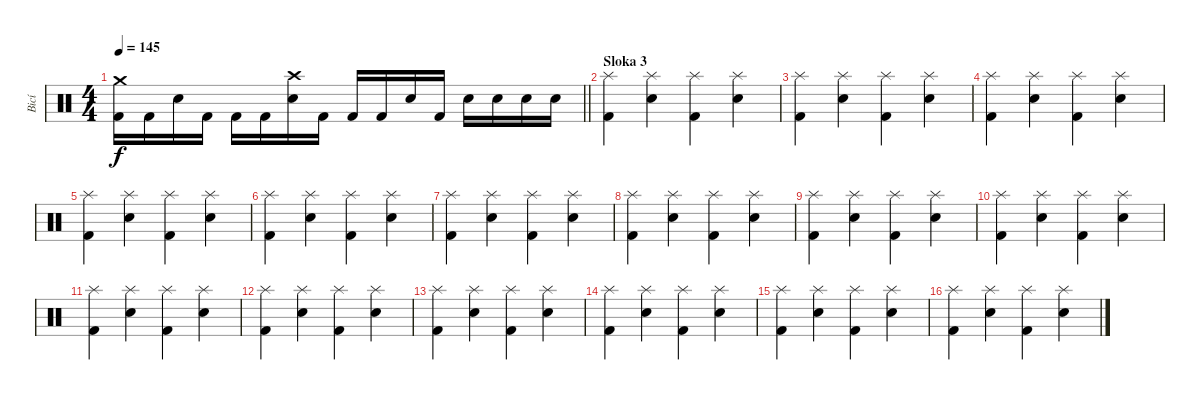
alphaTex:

\track ("Bicí" "Bicí") {instrument percussion}
\staff {score}
\articulation defaults
\ts (4 4)
\tempo 145
\clef neutral
\barLineRight lightlight
\ks c
("Kick (hit) 2" "Crash medium (hit)").16{dy f} "Kick (hit) 2".16 "Electric Snare (hit)".16 "Kick (hit) 2".16 "Kick (hit) 2".16 "Kick (hit) 2".16 ("Electric Snare (hit)" "Crash high (hit)").16 "Kick (hit) 2".16 "Kick (hit) 2".16 "Kick (hit) 2".16 "Electric Snare (hit)".16 "Kick (hit) 2".16 "Electric Snare (hit)".16 "Electric Snare (hit)".16 "Electric Snare (hit)".16 "Electric Snare (hit)".16 |
\section ("" "Sloka 3")
("Kick (hit) 2" "Splash (hit)").4 ("Electric Snare (hit)" "Splash (hit)").4 ("Kick (hit) 2" "Splash (hit)").4 ("Electric Snare (hit)" "Splash (hit)").4 |
("Kick (hit) 2" "Splash (hit)").4 ("Electric Snare (hit)" "Splash (hit)").4 ("Kick (hit) 2" "Splash (hit)").4 ("Electric Snare (hit)" "Splash (hit)").4 |
("Kick (hit) 2" "Splash (hit)").4 ("Electric Snare (hit)" "Splash (hit)").4 ("Kick (hit) 2" "Splash (hit)").4 ("Electric Snare (hit)" "Splash (hit)").4 |
("Kick (hit) 2" "Splash (hit)").4 ("Electric Snare (hit)" "Splash (hit)").4 ("Kick (hit) 2" "Splash (hit)").4 ("Electric Snare (hit)" "Splash (hit)").4 |
("Kick (hit) 2" "Splash (hit)").4 ("Electric Snare (hit)" "Splash (hit)").4 ("Kick (hit) 2" "Splash (hit)").4 ("Electric Snare (hit)" "Splash (hit)").4 |
("Kick (hit) 2" "Splash (hit)").4 ("Electric Snare (hit)" "Splash (hit)").4 ("Kick (hit) 2" "Splash (hit)").4 ("Electric Snare (hit)" "Splash (hit)").4 |
("Kick (hit) 2" "Splash (hit)").4 ("Electric Snare (hit)" "Splash (hit)").4 ("Kick (hit) 2" "Splash (hit)").4 ("Electric Snare (hit)" "Splash (hit)").4 |
("Kick (hit) 2" "Splash (hit)").4 ("Electric Snare (hit)" "Splash (hit)").4 ("Kick (hit) 2" "Splash (hit)").4 ("Electric Snare (hit)" "Splash (hit)").4 |
("Kick (hit) 2" "Splash (hit)").4 ("Electric Snare (hit)" "Splash (hit)").4 ("Kick (hit) 2" "Splash (hit)").4 ("Electric Snare (hit)" "Splash (hit)").4 |
("Kick (hit) 2" "Splash (hit)").4 ("Electric Snare (hit)" "Splash (hit)").4 ("Kick (hit) 2" "Splash (hit)").4 ("Electric Snare (hit)" "Splash (hit)").4 |
("Kick (hit) 2" "Splash (hit)").4 ("Electric Snare (hit)" "Splash (hit)").4 ("Kick (hit) 2" "Splash (hit)").4 ("Electric Snare (hit)" "Splash (hit)").4 |
("Kick (hit) 2" "Splash (hit)").4 ("Electric Snare (hit)" "Splash (hit)").4 ("Kick (hit) 2" "Splash (hit)").4 ("Electric Snare (hit)" "Splash (hit)").4 |
("Kick (hit) 2" "Splash (hit)").4 ("Electric Snare (hit)" "Splash (hit)").4 ("Kick (hit) 2" "Splash (hit)").4 ("Electric Snare (hit)" "Splash (hit)").4 |
("Kick (hit) 2" "Splash (hit)").4 ("Electric Snare (hit)" "Splash (hit)").4 ("Kick (hit) 2" "Splash (hit)").4 ("Electric Snare (hit)" "Splash (hit)").4 |
("Kick (hit) 2" "Splash (hit)").4 ("Electric Snare (hit)" "Splash (hit)").4 ("Kick (hit) 2" "Splash (hit)").4 ("Electric Snare (hit)" "Splash (hit)").4
